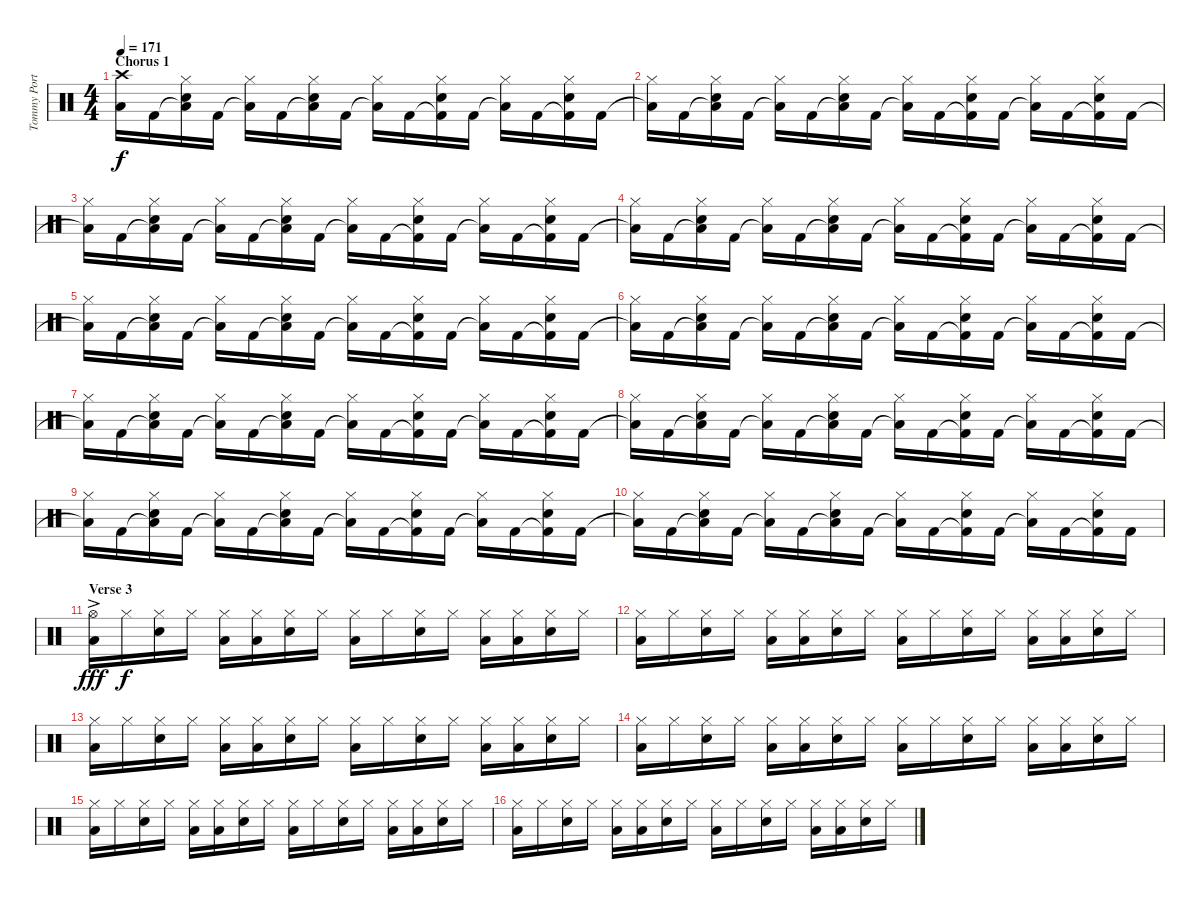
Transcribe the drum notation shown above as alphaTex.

\track ("Tommy Portino" "Tommy Port") {instrument percussion}
\staff {score}
\articulation defaults
\ts (4 4)
\section ("" "Chorus 1")
\tempo 171
\clef neutral
\ks aminor
("Low Floor Tom (hit)"{t} "Crash high (hit)").16{dy f} "Kick (hit) 2".16 ("Low Floor Tom (hit)"{t} "Electric Snare (hit)" "Hi-Hat (closed)").16 "Kick (hit) 2".16 ("Low Floor Tom (hit)"{t} "Hi-Hat (closed)").16 "Kick (hit) 2".16 ("Low Floor Tom (hit)"{t} "Electric Snare (hit)" "Hi-Hat (closed)").16 "Kick (hit) 2".16 ("Low Floor Tom (hit)"{t} "Hi-Hat (closed)").16 "Kick (hit) 2".16 ("Kick (hit) 2"{t} "Electric Snare (hit)" "Hi-Hat (closed)").16 "Kick (hit) 2".16 ("Low Floor Tom (hit)"{t} "Hi-Hat (closed)").16 "Kick (hit) 2".16 ("Kick (hit) 2"{t} "Electric Snare (hit)" "Hi-Hat (closed)").16 "Kick (hit) 2".16 |
("Low Floor Tom (hit)"{t} "Hi-Hat (closed)").16 "Kick (hit) 2".16 ("Low Floor Tom (hit)"{t} "Electric Snare (hit)" "Hi-Hat (closed)").16 "Kick (hit) 2".16 ("Low Floor Tom (hit)"{t} "Hi-Hat (closed)").16 "Kick (hit) 2".16 ("Low Floor Tom (hit)"{t} "Electric Snare (hit)" "Hi-Hat (closed)").16 "Kick (hit) 2".16 ("Low Floor Tom (hit)"{t} "Hi-Hat (closed)").16 "Kick (hit) 2".16 ("Kick (hit) 2"{t} "Electric Snare (hit)" "Hi-Hat (closed)").16 "Kick (hit) 2".16 ("Low Floor Tom (hit)"{t} "Hi-Hat (closed)").16 "Kick (hit) 2".16 ("Kick (hit) 2"{t} "Electric Snare (hit)" "Hi-Hat (closed)").16 "Kick (hit) 2".16 |
("Low Floor Tom (hit)"{t} "Hi-Hat (closed)").16 "Kick (hit) 2".16 ("Low Floor Tom (hit)"{t} "Electric Snare (hit)" "Hi-Hat (closed)").16 "Kick (hit) 2".16 ("Low Floor Tom (hit)"{t} "Hi-Hat (closed)").16 "Kick (hit) 2".16 ("Low Floor Tom (hit)"{t} "Electric Snare (hit)" "Hi-Hat (closed)").16 "Kick (hit) 2".16 ("Low Floor Tom (hit)"{t} "Hi-Hat (closed)").16 "Kick (hit) 2".16 ("Kick (hit) 2"{t} "Electric Snare (hit)" "Hi-Hat (closed)").16 "Kick (hit) 2".16 ("Low Floor Tom (hit)"{t} "Hi-Hat (closed)").16 "Kick (hit) 2".16 ("Kick (hit) 2"{t} "Electric Snare (hit)" "Hi-Hat (closed)").16 "Kick (hit) 2".16 |
("Low Floor Tom (hit)"{t} "Hi-Hat (closed)").16 "Kick (hit) 2".16 ("Low Floor Tom (hit)"{t} "Electric Snare (hit)" "Hi-Hat (closed)").16 "Kick (hit) 2".16 ("Low Floor Tom (hit)"{t} "Hi-Hat (closed)").16 "Kick (hit) 2".16 ("Low Floor Tom (hit)"{t} "Electric Snare (hit)" "Hi-Hat (closed)").16 "Kick (hit) 2".16 ("Low Floor Tom (hit)"{t} "Hi-Hat (closed)").16 "Kick (hit) 2".16 ("Kick (hit) 2"{t} "Electric Snare (hit)" "Hi-Hat (closed)").16 "Kick (hit) 2".16 ("Low Floor Tom (hit)"{t} "Hi-Hat (closed)").16 "Kick (hit) 2".16 ("Kick (hit) 2"{t} "Electric Snare (hit)" "Hi-Hat (closed)").16 "Kick (hit) 2".16 |
("Low Floor Tom (hit)"{t} "Hi-Hat (closed)").16 "Kick (hit) 2".16 ("Low Floor Tom (hit)"{t} "Electric Snare (hit)" "Hi-Hat (closed)").16 "Kick (hit) 2".16 ("Low Floor Tom (hit)"{t} "Hi-Hat (closed)").16 "Kick (hit) 2".16 ("Low Floor Tom (hit)"{t} "Electric Snare (hit)" "Hi-Hat (closed)").16 "Kick (hit) 2".16 ("Low Floor Tom (hit)"{t} "Hi-Hat (closed)").16 "Kick (hit) 2".16 ("Kick (hit) 2"{t} "Electric Snare (hit)" "Hi-Hat (closed)").16 "Kick (hit) 2".16 ("Low Floor Tom (hit)"{t} "Hi-Hat (closed)").16 "Kick (hit) 2".16 ("Kick (hit) 2"{t} "Electric Snare (hit)" "Hi-Hat (closed)").16 "Kick (hit) 2".16 |
("Low Floor Tom (hit)"{t} "Hi-Hat (closed)").16 "Kick (hit) 2".16 ("Low Floor Tom (hit)"{t} "Electric Snare (hit)" "Hi-Hat (closed)").16 "Kick (hit) 2".16 ("Low Floor Tom (hit)"{t} "Hi-Hat (closed)").16 "Kick (hit) 2".16 ("Low Floor Tom (hit)"{t} "Electric Snare (hit)" "Hi-Hat (closed)").16 "Kick (hit) 2".16 ("Low Floor Tom (hit)"{t} "Hi-Hat (closed)").16 "Kick (hit) 2".16 ("Kick (hit) 2"{t} "Electric Snare (hit)" "Hi-Hat (closed)").16 "Kick (hit) 2".16 ("Low Floor Tom (hit)"{t} "Hi-Hat (closed)").16 "Kick (hit) 2".16 ("Kick (hit) 2"{t} "Electric Snare (hit)" "Hi-Hat (closed)").16 "Kick (hit) 2".16 |
("Low Floor Tom (hit)"{t} "Hi-Hat (closed)").16 "Kick (hit) 2".16 ("Low Floor Tom (hit)"{t} "Electric Snare (hit)" "Hi-Hat (closed)").16 "Kick (hit) 2".16 ("Low Floor Tom (hit)"{t} "Hi-Hat (closed)").16 "Kick (hit) 2".16 ("Low Floor Tom (hit)"{t} "Electric Snare (hit)" "Hi-Hat (closed)").16 "Kick (hit) 2".16 ("Low Floor Tom (hit)"{t} "Hi-Hat (closed)").16 "Kick (hit) 2".16 ("Kick (hit) 2"{t} "Electric Snare (hit)" "Hi-Hat (closed)").16 "Kick (hit) 2".16 ("Low Floor Tom (hit)"{t} "Hi-Hat (closed)").16 "Kick (hit) 2".16 ("Kick (hit) 2"{t} "Electric Snare (hit)" "Hi-Hat (closed)").16 "Kick (hit) 2".16 |
("Low Floor Tom (hit)"{t} "Hi-Hat (closed)").16 "Kick (hit) 2".16 ("Low Floor Tom (hit)"{t} "Electric Snare (hit)" "Hi-Hat (closed)").16 "Kick (hit) 2".16 ("Low Floor Tom (hit)"{t} "Hi-Hat (closed)").16 "Kick (hit) 2".16 ("Low Floor Tom (hit)"{t} "Electric Snare (hit)" "Hi-Hat (closed)").16 "Kick (hit) 2".16 ("Low Floor Tom (hit)"{t} "Hi-Hat (closed)").16 "Kick (hit) 2".16 ("Kick (hit) 2"{t} "Electric Snare (hit)" "Hi-Hat (closed)").16 "Kick (hit) 2".16 ("Low Floor Tom (hit)"{t} "Hi-Hat (closed)").16 "Kick (hit) 2".16 ("Kick (hit) 2"{t} "Electric Snare (hit)" "Hi-Hat (closed)").16 "Kick (hit) 2".16 |
("Low Floor Tom (hit)"{t} "Hi-Hat (closed)").16 "Kick (hit) 2".16 ("Low Floor Tom (hit)"{t} "Electric Snare (hit)" "Hi-Hat (closed)").16 "Kick (hit) 2".16 ("Low Floor Tom (hit)"{t} "Hi-Hat (closed)").16 "Kick (hit) 2".16 ("Low Floor Tom (hit)"{t} "Electric Snare (hit)" "Hi-Hat (closed)").16 "Kick (hit) 2".16 ("Low Floor Tom (hit)"{t} "Hi-Hat (closed)").16 "Kick (hit) 2".16 ("Kick (hit) 2"{t} "Electric Snare (hit)" "Hi-Hat (closed)").16 "Kick (hit) 2".16 ("Low Floor Tom (hit)"{t} "Hi-Hat (closed)").16 "Kick (hit) 2".16 ("Kick (hit) 2"{t} "Electric Snare (hit)" "Hi-Hat (closed)").16 "Kick (hit) 2".16 |
("Low Floor Tom (hit)"{t} "Hi-Hat (closed)").16 "Kick (hit) 2".16 ("Low Floor Tom (hit)"{t} "Electric Snare (hit)" "Hi-Hat (closed)").16 "Kick (hit) 2".16 ("Low Floor Tom (hit)"{t} "Hi-Hat (closed)").16 "Kick (hit) 2".16 ("Low Floor Tom (hit)"{t} "Electric Snare (hit)" "Hi-Hat (closed)").16 "Kick (hit) 2".16 ("Low Floor Tom (hit)"{t} "Hi-Hat (closed)").16 "Kick (hit) 2".16 ("Kick (hit) 2"{t} "Electric Snare (hit)" "Hi-Hat (closed)").16 "Kick (hit) 2".16 ("Low Floor Tom (hit)"{t} "Hi-Hat (closed)").16 "Kick (hit) 2".16 ("Kick (hit) 2"{t} "Electric Snare (hit)" "Hi-Hat (closed)").16 "Kick (hit) 2".16 |
\section ("" "Verse 3")
("Low Floor Tom (hit)"{ac} "Hi-Hat (open)").16{dy fff} "Hi-Hat (closed)".16{dy f} ("Electric Snare (hit)" "Hi-Hat (closed)").16 "Hi-Hat (closed)".16 ("Low Floor Tom (hit)" "Hi-Hat (closed)").16 ("Low Floor Tom (hit)" "Hi-Hat (closed)").16 ("Electric Snare (hit)" "Hi-Hat (closed)").16 "Hi-Hat (closed)".16 ("Low Floor Tom (hit)" "Hi-Hat (closed)").16 "Hi-Hat (closed)".16 ("Electric Snare (hit)" "Hi-Hat (closed)").16 "Hi-Hat (closed)".16 ("Low Floor Tom (hit)" "Hi-Hat (closed)").16 ("Low Floor Tom (hit)" "Hi-Hat (closed)").16 ("Electric Snare (hit)" "Hi-Hat (closed)").16 "Hi-Hat (closed)".16 |
("Low Floor Tom (hit)" "Hi-Hat (closed)").16 "Hi-Hat (closed)".16 ("Electric Snare (hit)" "Hi-Hat (closed)").16 "Hi-Hat (closed)".16 ("Low Floor Tom (hit)" "Hi-Hat (closed)").16 ("Low Floor Tom (hit)" "Hi-Hat (closed)").16 ("Electric Snare (hit)" "Hi-Hat (closed)").16 "Hi-Hat (closed)".16 ("Low Floor Tom (hit)" "Hi-Hat (closed)").16 "Hi-Hat (closed)".16 ("Electric Snare (hit)" "Hi-Hat (closed)").16 "Hi-Hat (closed)".16 ("Low Floor Tom (hit)" "Hi-Hat (closed)").16 ("Low Floor Tom (hit)" "Hi-Hat (closed)").16 ("Electric Snare (hit)" "Hi-Hat (closed)").16 "Hi-Hat (closed)".16 |
("Low Floor Tom (hit)" "Hi-Hat (closed)").16 "Hi-Hat (closed)".16 ("Electric Snare (hit)" "Hi-Hat (closed)").16 "Hi-Hat (closed)".16 ("Low Floor Tom (hit)" "Hi-Hat (closed)").16 ("Low Floor Tom (hit)" "Hi-Hat (closed)").16 ("Electric Snare (hit)" "Hi-Hat (closed)").16 "Hi-Hat (closed)".16 ("Low Floor Tom (hit)" "Hi-Hat (closed)").16 "Hi-Hat (closed)".16 ("Electric Snare (hit)" "Hi-Hat (closed)").16 "Hi-Hat (closed)".16 ("Low Floor Tom (hit)" "Hi-Hat (closed)").16 ("Low Floor Tom (hit)" "Hi-Hat (closed)").16 ("Electric Snare (hit)" "Hi-Hat (closed)").16 "Hi-Hat (closed)".16 |
("Low Floor Tom (hit)" "Hi-Hat (closed)").16 "Hi-Hat (closed)".16 ("Electric Snare (hit)" "Hi-Hat (closed)").16 "Hi-Hat (closed)".16 ("Low Floor Tom (hit)" "Hi-Hat (closed)").16 ("Low Floor Tom (hit)" "Hi-Hat (closed)").16 ("Electric Snare (hit)" "Hi-Hat (closed)").16 "Hi-Hat (closed)".16 ("Low Floor Tom (hit)" "Hi-Hat (closed)").16 "Hi-Hat (closed)".16 ("Electric Snare (hit)" "Hi-Hat (closed)").16 "Hi-Hat (closed)".16 ("Low Floor Tom (hit)" "Hi-Hat (closed)").16 ("Low Floor Tom (hit)" "Hi-Hat (closed)").16 ("Electric Snare (hit)" "Hi-Hat (closed)").16 "Hi-Hat (closed)".16 |
("Low Floor Tom (hit)" "Hi-Hat (closed)").16 "Hi-Hat (closed)".16 ("Electric Snare (hit)" "Hi-Hat (closed)").16 "Hi-Hat (closed)".16 ("Low Floor Tom (hit)" "Hi-Hat (closed)").16 ("Low Floor Tom (hit)" "Hi-Hat (closed)").16 ("Electric Snare (hit)" "Hi-Hat (closed)").16 "Hi-Hat (closed)".16 ("Low Floor Tom (hit)" "Hi-Hat (closed)").16 "Hi-Hat (closed)".16 ("Electric Snare (hit)" "Hi-Hat (closed)").16 "Hi-Hat (closed)".16 ("Low Floor Tom (hit)" "Hi-Hat (closed)").16 ("Low Floor Tom (hit)" "Hi-Hat (closed)").16 ("Electric Snare (hit)" "Hi-Hat (closed)").16 "Hi-Hat (closed)".16 |
("Low Floor Tom (hit)" "Hi-Hat (closed)").16 "Hi-Hat (closed)".16 ("Electric Snare (hit)" "Hi-Hat (closed)").16 "Hi-Hat (closed)".16 ("Low Floor Tom (hit)" "Hi-Hat (closed)").16 ("Low Floor Tom (hit)" "Hi-Hat (closed)").16 ("Electric Snare (hit)" "Hi-Hat (closed)").16 "Hi-Hat (closed)".16 ("Low Floor Tom (hit)" "Hi-Hat (closed)").16 "Hi-Hat (closed)".16 ("Electric Snare (hit)" "Hi-Hat (closed)").16 "Hi-Hat (closed)".16 ("Low Floor Tom (hit)" "Hi-Hat (closed)").16 ("Low Floor Tom (hit)" "Hi-Hat (closed)").16 ("Electric Snare (hit)" "Hi-Hat (closed)").16 "Hi-Hat (closed)".16
